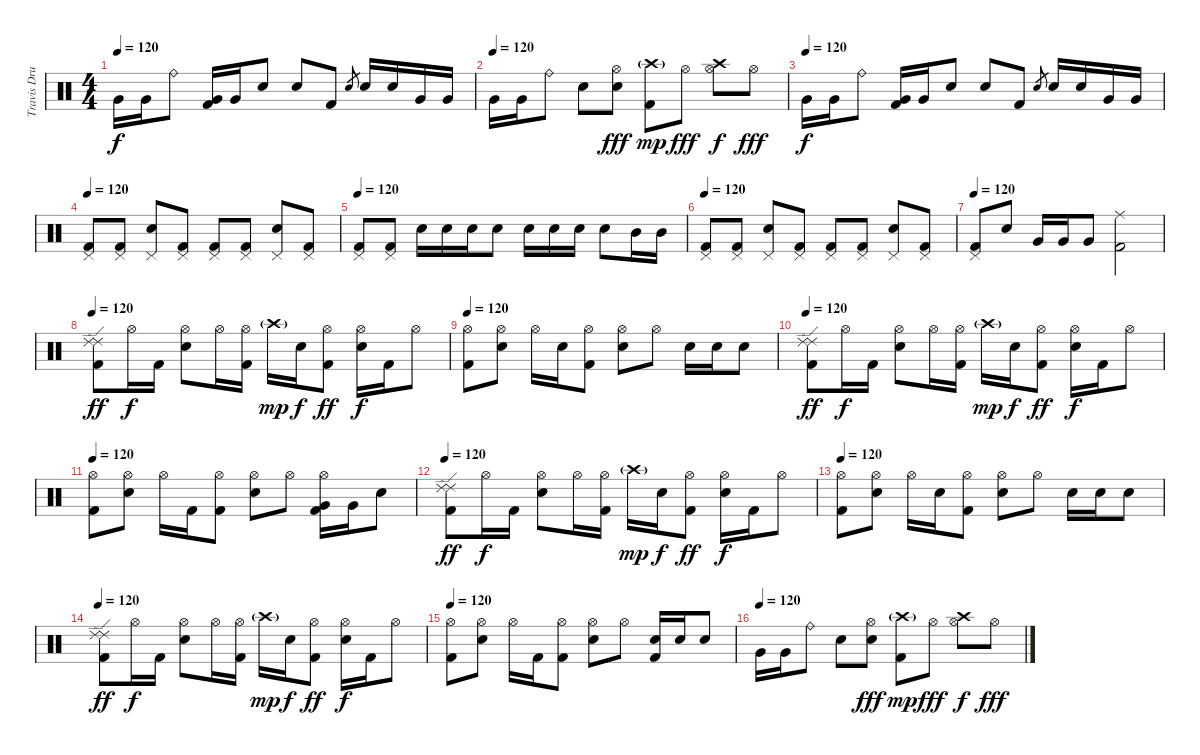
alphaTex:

\track ("Travis Drums" "Travis Dru") {instrument percussion}
\staff {score}
\articulation defaults
\ts (4 4)
\tempo 120
\clef neutral
\ks c "Very Low Tom (hit)".16{dy f} "Very Low Tom (hit)".16 "Ride (bell)".8
("Very Low Tom (hit)" "Kick (hit) 2").16 "Very Low Tom (hit)".16 "Electric Snare (hit)".8 "Electric Snare (hit)".8 "Kick (hit) 2".8 "Electric Snare (hit)".8{gr} "Electric Snare (hit)".16 "Electric Snare (hit)".16 "Very Low Tom (hit)".16 "Very Low Tom (hit)".16 |
\tempo (120)
"Very Low Tom (hit)".16 "Very Low Tom (hit)".16 "Ride (bell)".8 "Electric Snare (hit)".8 ("Hi-Hat (open)" "Electric Snare (hit)").8{dy fff} ("Crash high (hit)"{g} "Kick (hit) 2").8{dy mp} "Hi-Hat (open)".8{dy fff} ("Crash high (hit)" "Hi-Hat (open)").8{dy f} "Hi-Hat (open)".8{dy fff} |
\tempo (120)
"Very Low Tom (hit)".16{dy f} "Very Low Tom (hit)".16 "Ride (bell)".8 ("Very Low Tom (hit)" "Kick (hit) 2").16 "Very Low Tom (hit)".16 "Electric Snare (hit)".8 "Electric Snare (hit)".8 "Kick (hit) 2".8 "Electric Snare (hit)".8{gr} "Electric Snare (hit)".16 "Electric Snare (hit)".16 "Very Low Tom (hit)".16 "Very Low Tom (hit)".16 |
\tempo 120
("Pedal Hi-Hat (hit)" "Kick (hit) 2").8 ("Pedal Hi-Hat (hit)" "Kick (hit) 2").8 ("Pedal Hi-Hat (hit)" "Electric Snare (hit)").8 ("Pedal Hi-Hat (hit)" "Kick (hit) 2").8 ("Pedal Hi-Hat (hit)" "Kick (hit) 2").8 ("Pedal Hi-Hat (hit)" "Kick (hit) 2").8 ("Pedal Hi-Hat (hit)" "Electric Snare (hit)").8 ("Pedal Hi-Hat (hit)" "Kick (hit) 2").8 |
\tempo 120
("Pedal Hi-Hat (hit)" "Kick (hit) 2").8 ("Pedal Hi-Hat (hit)" "Kick (hit) 2").8 "Electric Snare (hit)".16 "Electric Snare (hit)".16 "Electric Snare (hit)".16 "Electric Snare (hit)".8 "Electric Snare (hit)".16 "Electric Snare (hit)".16 "Electric Snare (hit)".16 "Electric Snare (hit)".8 "Mid Tom (hit)".16 "Mid Tom (hit)".16 |
\tempo 120
("Pedal Hi-Hat (hit)" "Kick (hit) 2").8 ("Pedal Hi-Hat (hit)" "Kick (hit) 2").8 ("Pedal Hi-Hat (hit)" "Electric Snare (hit)").8 ("Pedal Hi-Hat (hit)" "Kick (hit) 2").8 ("Pedal Hi-Hat (hit)" "Kick (hit) 2").8 ("Pedal Hi-Hat (hit)" "Kick (hit) 2").8 ("Pedal Hi-Hat (hit)" "Electric Snare (hit)").8 ("Pedal Hi-Hat (hit)" "Kick (hit) 2").8 |
\tempo 120
("Pedal Hi-Hat (hit)" "Kick (hit) 2").8 "Electric Snare (hit)".8 "Very Low Tom (hit)".16 "Very Low Tom (hit)".16 "Very Low Tom (hit)".8 ("Ride (middle)" "Kick (hit) 2").2 |
\tempo 120
("Ride (edge) 2" "Ride (edge) 2" "Kick (hit) 2").8{dy ff} "Hi-Hat (open)".16{dy f} "Kick (hit) 2".16 ("Hi-Hat (open)" "Electric Snare (hit)").8 "Hi-Hat (open)".16 ("Hi-Hat (open)" "Kick (hit) 2").16 "Crash high (hit)"{g}.16{dy mp} "Electric Snare (hit)".16{dy f} ("Hi-Hat (open)" "Kick (hit) 2").8{dy ff} ("Hi-Hat (open)" "Electric Snare (hit)").16{dy f} "Kick (hit) 2".16 "Hi-Hat (open)".8 |
\tempo 120
("Hi-Hat (open)" "Kick (hit) 2").8 ("Hi-Hat (open)" "Electric Snare (hit)").8 "Hi-Hat (open)".16 "Electric Snare (hit)".16 ("Hi-Hat (open)" "Kick (hit) 2").8 ("Hi-Hat (open)" "Electric Snare (hit)").8 "Hi-Hat (open)".8 "Electric Snare (hit)".16 "Electric Snare (hit)".16 "Electric Snare (hit)".8 |
\tempo 120
("Ride (edge) 2" "Ride (edge) 2" "Kick (hit) 2").8{dy ff} "Hi-Hat (open)".16{dy f} "Kick (hit) 2".16 ("Hi-Hat (open)" "Electric Snare (hit)").8 "Hi-Hat (open)".16 ("Hi-Hat (open)" "Kick (hit) 2").16 "Crash high (hit)"{g}.16{dy mp} "Electric Snare (hit)".16{dy f} ("Hi-Hat (open)" "Kick (hit) 2").8{dy ff} ("Hi-Hat (open)" "Electric Snare (hit)").16{dy f} "Kick (hit) 2".16 "Hi-Hat (open)".8 |
\tempo 120
("Hi-Hat (open)" "Kick (hit) 2").8 ("Hi-Hat (open)" "Electric Snare (hit)").8 "Hi-Hat (open)".16 "Kick (hit) 2".16 ("Hi-Hat (open)" "Kick (hit) 2").8 ("Hi-Hat (open)" "Electric Snare (hit)").8 "Hi-Hat (open)".8 ("Hi-Hat (open)" "Very Low Tom (hit)" "Kick (hit) 2").16 "Very Low Tom (hit)".16 "Electric Snare (hit)".8 |
\tempo 120
("Ride (edge) 2" "Ride (edge) 2" "Kick (hit) 2").8{dy ff} "Hi-Hat (open)".16{dy f} "Kick (hit) 2".16 ("Hi-Hat (open)" "Electric Snare (hit)").8 "Hi-Hat (open)".16 ("Hi-Hat (open)" "Kick (hit) 2").16 "Crash high (hit)"{g}.16{dy mp} "Electric Snare (hit)".16{dy f} ("Hi-Hat (open)" "Kick (hit) 2").8{dy ff} ("Hi-Hat (open)" "Electric Snare (hit)").16{dy f} "Kick (hit) 2".16 "Hi-Hat (open)".8 |
\tempo 120
("Hi-Hat (open)" "Kick (hit) 2").8 ("Hi-Hat (open)" "Electric Snare (hit)").8 "Hi-Hat (open)".16 "Electric Snare (hit)".16 ("Hi-Hat (open)" "Kick (hit) 2").8 ("Hi-Hat (open)" "Electric Snare (hit)").8 "Hi-Hat (open)".8 "Electric Snare (hit)".16 "Electric Snare (hit)".16 "Electric Snare (hit)".8 |
\tempo 120
("Ride (edge) 2" "Ride (edge) 2" "Kick (hit) 2").8{dy ff} "Hi-Hat (open)".16{dy f} "Kick (hit) 2".16 ("Hi-Hat (open)" "Electric Snare (hit)").8 "Hi-Hat (open)".16 ("Hi-Hat (open)" "Kick (hit) 2").16 "Crash high (hit)"{g}.16{dy mp} "Electric Snare (hit)".16{dy f} ("Hi-Hat (open)" "Kick (hit) 2").8{dy ff} ("Hi-Hat (open)" "Electric Snare (hit)").16{dy f} "Kick (hit) 2".16 "Hi-Hat (open)".8 |
\tempo 120
("Hi-Hat (open)" "Kick (hit) 2").8 ("Hi-Hat (open)" "Electric Snare (hit)").8 "Hi-Hat (open)".16 "Kick (hit) 2".16 ("Hi-Hat (open)" "Kick (hit) 2").8 ("Hi-Hat (open)" "Electric Snare (hit)").8 "Hi-Hat (open)".8 ("Electric Snare (hit)" "Kick (hit) 2").16 "Electric Snare (hit)".16 "Electric Snare (hit)".8 |
\tempo (120)
"Very Low Tom (hit)".16 "Very Low Tom (hit)".16 "Ride (bell)".8 "Electric Snare (hit)".8 ("Hi-Hat (open)" "Electric Snare (hit)").8{dy fff} ("Crash high (hit)"{g} "Kick (hit) 2").8{dy mp} "Hi-Hat (open)".8{dy fff} ("Crash high (hit)" "Hi-Hat (open)").8{dy f} "Hi-Hat (open)".8{dy fff}
